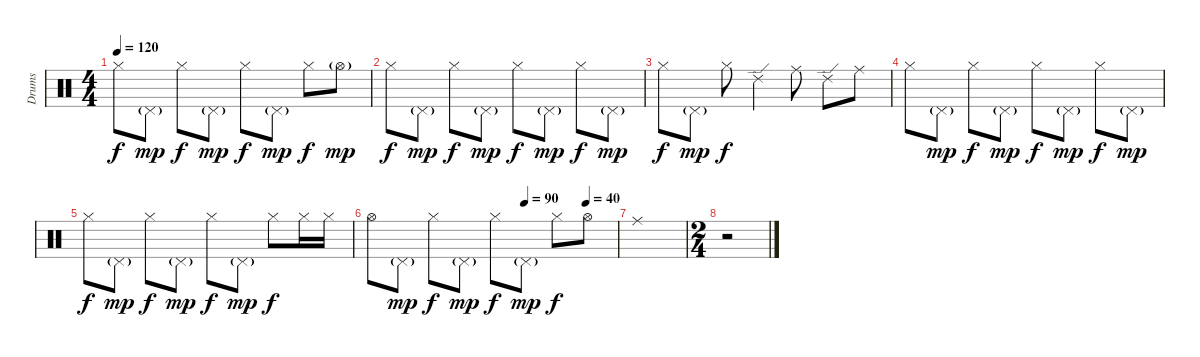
\track ("Drums" "Drums") {instrument percussion}
\staff {score}
\articulation defaults
\ts (4 4)
\tempo 120
\clef neutral
\ks c "Hi-Hat (closed)".8{dy f} "Pedal Hi-Hat (hit)"{g}.8{dy mp} "Hi-Hat (closed)".8{dy f} "Pedal Hi-Hat (hit)"{g}.8{dy mp} "Hi-Hat (closed)".8{dy f} "Pedal Hi-Hat (hit)"{g}.8{dy mp} "Hi-Hat (closed)".8{dy f} "Hi-Hat (open)"{g}.8{dy mp}
|
"Hi-Hat (closed)".8{dy f} "Pedal Hi-Hat (hit)"{g}.8{dy mp} "Hi-Hat (closed)".8{dy f} "Pedal Hi-Hat (hit)"{g}.8{dy mp} "Hi-Hat (closed)".8{dy f} "Pedal Hi-Hat (hit)"{g}.8{dy mp} "Hi-Hat (closed)".8{dy f} "Pedal Hi-Hat (hit)"{g}.8{dy mp} |
"Hi-Hat (closed)".8{dy f} "Pedal Hi-Hat (hit)"{g}.8{dy mp} "Hi-Hat (closed)".8{dy f} "Ride (edge) 2".4 "Ride (middle)".8 "Ride (edge) 2".8 "Ride (middle)".8 |
"Hi-Hat (closed)".8 "Pedal Hi-Hat (hit)"{g}.8{dy mp} "Hi-Hat (closed)".8{dy f} "Pedal Hi-Hat (hit)"{g}.8{dy mp} "Hi-Hat (closed)".8{dy f} "Pedal Hi-Hat (hit)"{g}.8{dy mp} "Hi-Hat (closed)".8{dy f} "Pedal Hi-Hat (hit)"{g}.8{dy mp} |
"Hi-Hat (closed)".8{dy f} "Pedal Hi-Hat (hit)"{g}.8{dy mp} "Hi-Hat (closed)".8{dy f} "Pedal Hi-Hat (hit)"{g}.8{dy mp} "Hi-Hat (closed)".8{dy f} "Pedal Hi-Hat (hit)"{g}.8{dy mp} "Hi-Hat (closed)".8{dy f} "Hi-Hat (closed)".16 "Hi-Hat (closed)".16 |
\tempo (90 0.625)
\tempo (40 0.875)
"Hi-Hat (open)".8 "Pedal Hi-Hat (hit)"{g}.8{dy mp} "Hi-Hat (closed)".8{dy f} "Pedal Hi-Hat (hit)"{g}.8{dy mp} "Hi-Hat (closed)".8{dy f} "Pedal Hi-Hat (hit)"{g}.8{dy mp} "Hi-Hat (closed)".8{dy f} "Hi-Hat (open)".8 |
"Ride (middle)".1 |
\ts (2 4)
r.2
